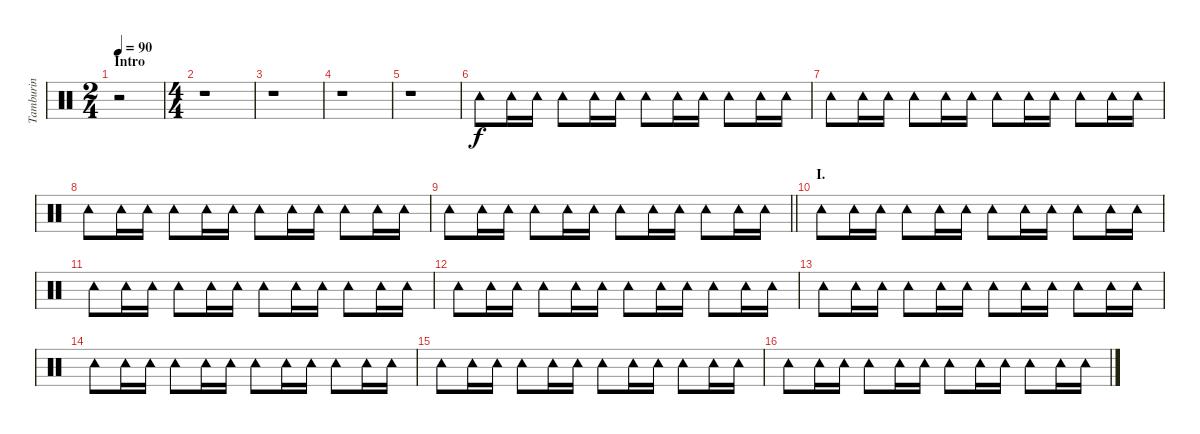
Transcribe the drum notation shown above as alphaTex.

\track ("Tamburin" "Tamburin") {instrument percussion}
\staff {score}
\articulation defaults
\ts (2 4)
\section ("" "Intro")
\tempo 90
\clef neutral
\ks c
r.2{dy f} |
\ts (4 4)
r.1 |
r.1 |
r.1 |
r.1 |
"Tambourine (hit)".8{volume 6} "Tambourine (hit)".16 "Tambourine (hit)".16 "Tambourine (hit)".8 "Tambourine (hit)".16 "Tambourine (hit)".16 "Tambourine (hit)".8 "Tambourine (hit)".16 "Tambourine (hit)".16 "Tambourine (hit)".8 "Tambourine (hit)".16 "Tambourine (hit)".16 |
"Tambourine (hit)".8 "Tambourine (hit)".16 "Tambourine (hit)".16 "Tambourine (hit)".8 "Tambourine (hit)".16 "Tambourine (hit)".16 "Tambourine (hit)".8 "Tambourine (hit)".16 "Tambourine (hit)".16 "Tambourine (hit)".8 "Tambourine (hit)".16 "Tambourine (hit)".16 |
"Tambourine (hit)".8 "Tambourine (hit)".16 "Tambourine (hit)".16 "Tambourine (hit)".8 "Tambourine (hit)".16 "Tambourine (hit)".16 "Tambourine (hit)".8 "Tambourine (hit)".16 "Tambourine (hit)".16 "Tambourine (hit)".8 "Tambourine (hit)".16 "Tambourine (hit)".16 |
\barLineRight lightlight "Tambourine (hit)".8 "Tambourine (hit)".16 "Tambourine (hit)".16 "Tambourine (hit)".8 "Tambourine (hit)".16 "Tambourine (hit)".16 "Tambourine (hit)".8 "Tambourine (hit)".16 "Tambourine (hit)".16 "Tambourine (hit)".8 "Tambourine (hit)".16 "Tambourine (hit)".16
|
\section ("" "I.")
"Tambourine (hit)".8 "Tambourine (hit)".16 "Tambourine (hit)".16 "Tambourine (hit)".8 "Tambourine (hit)".16 "Tambourine (hit)".16 "Tambourine (hit)".8 "Tambourine (hit)".16 "Tambourine (hit)".16 "Tambourine (hit)".8 "Tambourine (hit)".16 "Tambourine (hit)".16 |
"Tambourine (hit)".8 "Tambourine (hit)".16 "Tambourine (hit)".16 "Tambourine (hit)".8 "Tambourine (hit)".16 "Tambourine (hit)".16 "Tambourine (hit)".8 "Tambourine (hit)".16 "Tambourine (hit)".16 "Tambourine (hit)".8 "Tambourine (hit)".16 "Tambourine (hit)".16 |
"Tambourine (hit)".8 "Tambourine (hit)".16 "Tambourine (hit)".16 "Tambourine (hit)".8 "Tambourine (hit)".16 "Tambourine (hit)".16 "Tambourine (hit)".8 "Tambourine (hit)".16 "Tambourine (hit)".16 "Tambourine (hit)".8 "Tambourine (hit)".16 "Tambourine (hit)".16 |
"Tambourine (hit)".8 "Tambourine (hit)".16 "Tambourine (hit)".16 "Tambourine (hit)".8 "Tambourine (hit)".16 "Tambourine (hit)".16 "Tambourine (hit)".8 "Tambourine (hit)".16 "Tambourine (hit)".16 "Tambourine (hit)".8 "Tambourine (hit)".16 "Tambourine (hit)".16 |
"Tambourine (hit)".8 "Tambourine (hit)".16 "Tambourine (hit)".16 "Tambourine (hit)".8 "Tambourine (hit)".16 "Tambourine (hit)".16 "Tambourine (hit)".8 "Tambourine (hit)".16 "Tambourine (hit)".16 "Tambourine (hit)".8 "Tambourine (hit)".16 "Tambourine (hit)".16 |
"Tambourine (hit)".8 "Tambourine (hit)".16 "Tambourine (hit)".16 "Tambourine (hit)".8 "Tambourine (hit)".16 "Tambourine (hit)".16 "Tambourine (hit)".8 "Tambourine (hit)".16 "Tambourine (hit)".16 "Tambourine (hit)".8 "Tambourine (hit)".16 "Tambourine (hit)".16 |
"Tambourine (hit)".8 "Tambourine (hit)".16 "Tambourine (hit)".16 "Tambourine (hit)".8 "Tambourine (hit)".16 "Tambourine (hit)".16 "Tambourine (hit)".8 "Tambourine (hit)".16 "Tambourine (hit)".16 "Tambourine (hit)".8 "Tambourine (hit)".16 "Tambourine (hit)".16
